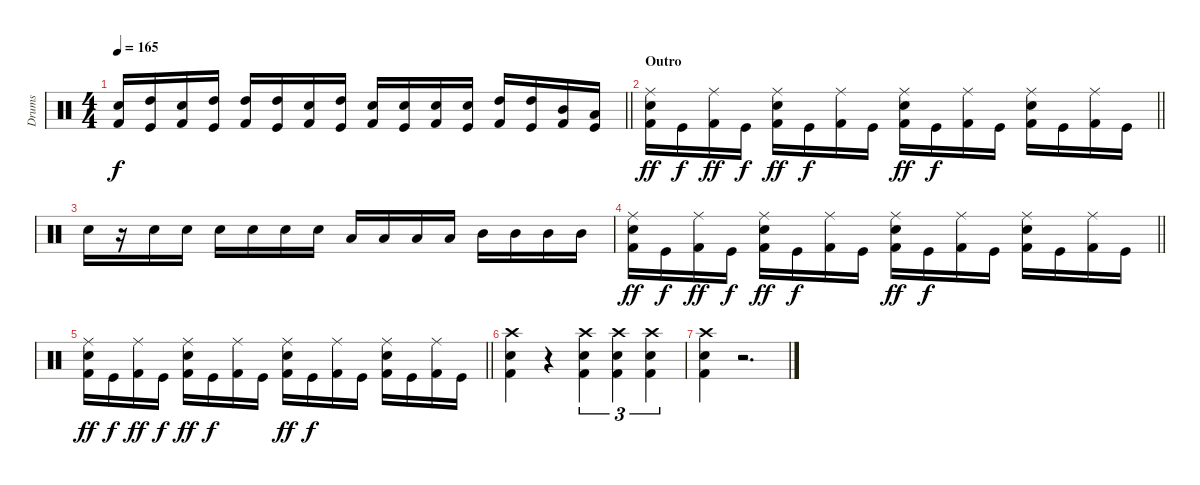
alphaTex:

\track ("Drums" "Drums") {instrument percussion}
\staff {score}
\articulation defaults
\ts (4 4)
\tempo 165
\clef neutral
\barLineRight lightlight
\ks c
("Snare (hit) 2" "Kick (hit) 2").16{dy f} ("High Tom (hit)" "Kick (hit)").16 ("Snare (hit) 2" "Kick (hit) 2").16 ("High Tom (hit)" "Kick (hit)").16 ("High Tom (hit)" "Kick (hit) 2").16 ("High Tom (hit)" "Kick (hit)").16 ("Snare (hit) 2" "Kick (hit) 2").16 ("High Tom (hit)" "Kick (hit)").16 ("Snare (hit) 2" "Kick (hit) 2").16 ("Snare (hit) 2" "Kick (hit)").16 ("Snare (hit) 2" "Kick (hit) 2").16 ("Snare (hit) 2" "Kick (hit)").16 ("High Tom (hit)" "Kick (hit) 2").16 ("High Tom (hit)" "Kick (hit)").16 ("Mid Tom (hit)" "Kick (hit) 2").16 ("Low Tom (hit)" "Kick (hit)").16 |
\section ("" "Outro")
\barLineRight lightlight
("Ride (middle)" "Snare (hit) 2" "Kick (hit) 2").16{dy ff} "Kick (hit)".16{dy f} ("Ride (middle)" "Kick (hit) 2").16{dy ff} "Kick (hit)".16{dy f} ("Ride (middle)" "Snare (hit) 2" "Kick (hit) 2").16{dy ff} "Kick (hit)".16{dy f} ("Ride (middle)" "Kick (hit) 2").16 "Kick (hit)".16 ("Ride (middle)" "Snare (hit) 2" "Kick (hit) 2").16{dy ff} "Kick (hit)".16{dy f} ("Ride (middle)" "Kick (hit) 2").16 "Kick (hit)".16 ("Ride (middle)" "Snare (hit) 2" "Kick (hit) 2").16 "Kick (hit)".16 ("Ride (middle)" "Kick (hit) 2").16 "Kick (hit)".16 |
"Snare (hit) 2".16 r.16 "Snare (hit) 2".16 "Snare (hit) 2".16 "Snare (hit) 2".16 "Snare (hit) 2".16 "Snare (hit) 2".16 "Snare (hit) 2".16 "Low Tom (hit)".16 "Low Tom (hit)".16 "Low Tom (hit)".16 "Low Tom (hit)".16 "Mid Tom (hit)".16 "Mid Tom (hit)".16 "Mid Tom (hit)".16 "Mid Tom (hit)".16 |
\barLineRight lightlight
("Ride (middle)" "Snare (hit) 2" "Kick (hit) 2").16{dy ff} "Kick (hit)".16{dy f} ("Ride (middle)" "Kick (hit) 2").16{dy ff} "Kick (hit)".16{dy f} ("Ride (middle)" "Snare (hit) 2" "Kick (hit) 2").16{dy ff} "Kick (hit)".16{dy f} ("Ride (middle)" "Kick (hit) 2").16 "Kick (hit)".16 ("Ride (middle)" "Snare (hit) 2" "Kick (hit) 2").16{dy ff} "Kick (hit)".16{dy f} ("Ride (middle)" "Kick (hit) 2").16 "Kick (hit)".16 ("Ride (middle)" "Snare (hit) 2" "Kick (hit) 2").16 "Kick (hit)".16 ("Ride (middle)" "Kick (hit) 2").16 "Kick (hit)".16 |
\barLineRight lightlight
("Ride (middle)" "Snare (hit) 2" "Kick (hit) 2").16{dy ff} "Kick (hit)".16{dy f} ("Ride (middle)" "Kick (hit) 2").16{dy ff} "Kick (hit)".16{dy f} ("Ride (middle)" "Snare (hit) 2" "Kick (hit) 2").16{dy ff} "Kick (hit)".16{dy f} ("Ride (middle)" "Kick (hit) 2").16 "Kick (hit)".16 ("Ride (middle)" "Snare (hit) 2" "Kick (hit) 2").16{dy ff} "Kick (hit)".16{dy f} ("Ride (middle)" "Kick (hit) 2").16 "Kick (hit)".16 ("Ride (middle)" "Snare (hit) 2" "Kick (hit) 2").16 "Kick (hit)".16 ("Ride (middle)" "Kick (hit) 2").16 "Kick (hit)".16 |
("Crash high (hit)" "Snare (hit) 2" "Kick (hit) 2").4 r.4 ("Crash high (hit)" "Snare (hit) 2" "Kick (hit) 2").4{tu (3 2)} ("Crash high (hit)" "Snare (hit) 2" "Kick (hit) 2").4{tu (3 2)} ("Crash high (hit)" "Snare (hit) 2" "Kick (hit) 2").4{tu (3 2)} |
("Crash high (hit)" "Snare (hit) 2" "Kick (hit) 2").4 r.2{d}
